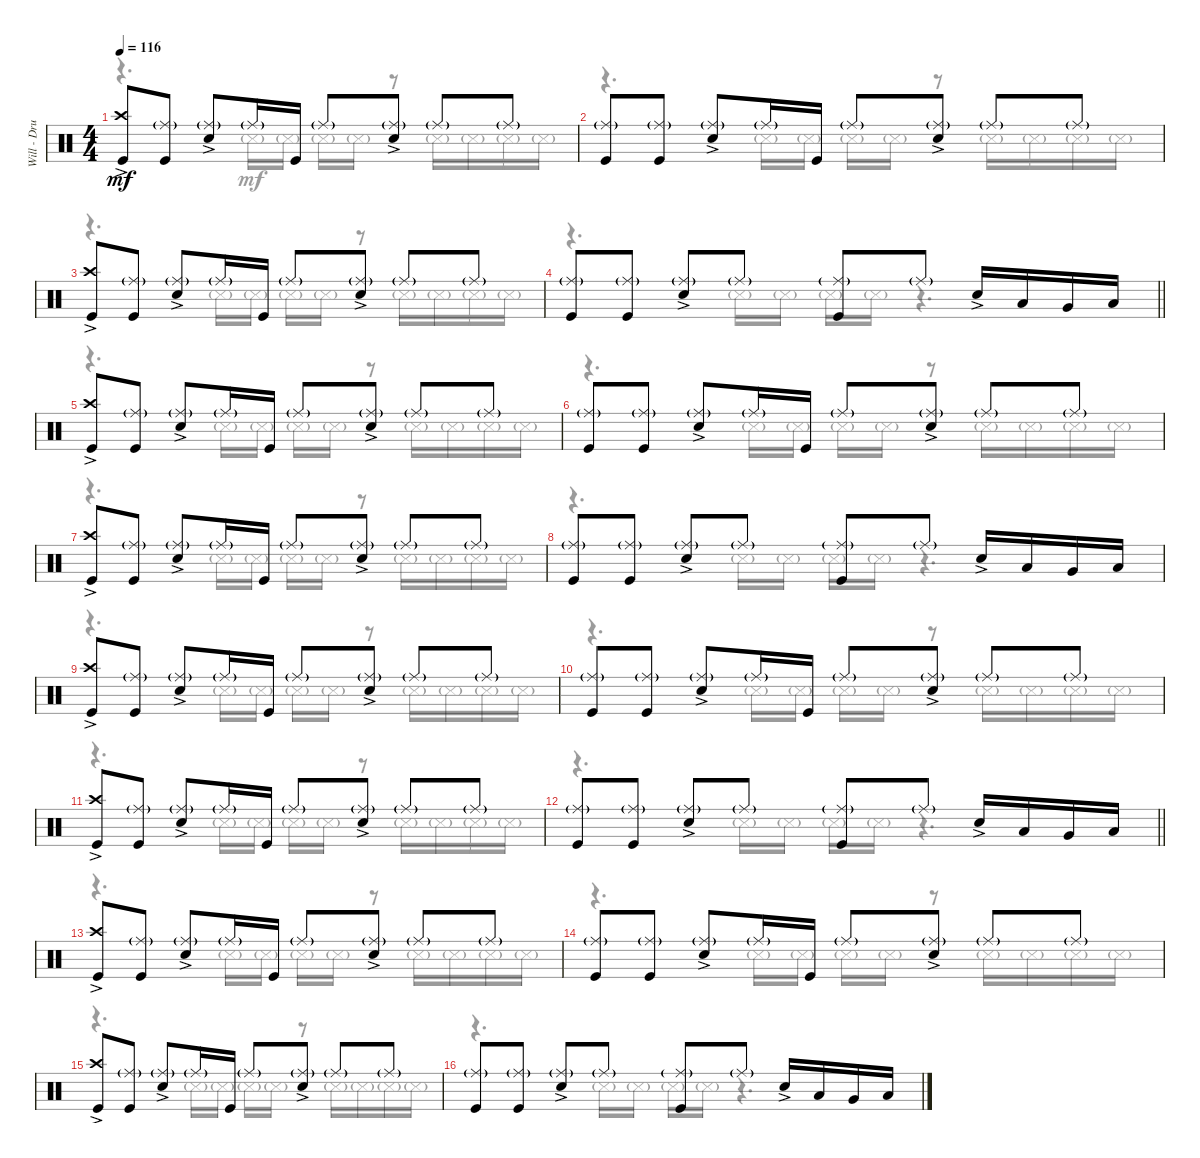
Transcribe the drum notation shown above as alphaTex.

\track ("Will - Drumkit" "Will - Dru") {instrument percussion}
\staff {score}
\articulation defaults
\voice
\ts (4 4)
\tempo 116
\clef neutral
\ks c
("Kick (hit)" "Crash high (hit)"{ac}).8{dy mf} ("Kick (hit)" "Ride (middle)"{g}).8 ("Snare (hit) 2"{ac} "Ride (middle)"{g}).8 "Ride (middle)"{g}.16 "Kick (hit)".16 "Ride (middle)"{g}.8 ("Ride (middle)"{g} "Snare (hit) 2"{ac}).8 "Ride (middle)"{g}.8 "Ride (middle)"{g}.8 |
("Kick (hit)" "Ride (middle)"{g}).8 ("Kick (hit)" "Ride (middle)"{g}).8 ("Snare (hit) 2"{ac} "Ride (middle)"{g}).8 "Ride (middle)"{g}.16 "Kick (hit)".16 "Ride (middle)"{g}.8 ("Ride (middle)"{g} "Snare (hit) 2"{ac}).8 "Ride (middle)"{g}.8 "Ride (middle)"{g}.8 |
("Kick (hit)" "Crash high (hit)"{ac}).8 ("Kick (hit)" "Ride (middle)"{g}).8 ("Snare (hit) 2"{ac} "Ride (middle)"{g}).8 "Ride (middle)"{g}.16 "Kick (hit)".16 "Ride (middle)"{g}.8 ("Ride (middle)"{g} "Snare (hit) 2"{ac}).8 "Ride (middle)"{g}.8 "Ride (middle)"{g}.8 |
\barLineRight lightlight
("Kick (hit)" "Ride (middle)"{g}).8 ("Kick (hit)" "Ride (middle)"{g}).8 ("Snare (hit) 2"{ac} "Ride (middle)"{g}).8 "Ride (middle)"{g}.8 ("Kick (hit)" "Ride (middle)"{g}).8 "Ride (middle)"{g}.8 "Snare (hit) 2"{ac}.16 "Low Tom (hit)".16 "Very Low Tom (hit)".16 "Low Floor Tom (hit)".16 |
("Kick (hit)" "Crash high (hit)"{ac}).8 ("Kick (hit)" "Ride (middle)"{g}).8 ("Snare (hit) 2"{ac} "Ride (middle)"{g}).8 "Ride (middle)"{g}.16 "Kick (hit)".16 "Ride (middle)"{g}.8 ("Ride (middle)"{g} "Snare (hit) 2"{ac}).8 "Ride (middle)"{g}.8 "Ride (middle)"{g}.8 |
("Kick (hit)" "Ride (middle)"{g}).8 ("Kick (hit)" "Ride (middle)"{g}).8 ("Snare (hit) 2"{ac} "Ride (middle)"{g}).8 "Ride (middle)"{g}.16 "Kick (hit)".16 "Ride (middle)"{g}.8 ("Ride (middle)"{g} "Snare (hit) 2"{ac}).8 "Ride (middle)"{g}.8 "Ride (middle)"{g}.8 |
("Kick (hit)" "Crash high (hit)"{ac}).8 ("Kick (hit)" "Ride (middle)"{g}).8 ("Snare (hit) 2"{ac} "Ride (middle)"{g}).8 "Ride (middle)"{g}.16 "Kick (hit)".16 "Ride (middle)"{g}.8 ("Ride (middle)"{g} "Snare (hit) 2"{ac}).8 "Ride (middle)"{g}.8 "Ride (middle)"{g}.8 |
("Kick (hit)" "Ride (middle)"{g}).8 ("Kick (hit)" "Ride (middle)"{g}).8 ("Snare (hit) 2"{ac} "Ride (middle)"{g}).8 "Ride (middle)"{g}.8 ("Kick (hit)" "Ride (middle)"{g}).8 "Ride (middle)"{g}.8 "Snare (hit) 2"{ac}.16 "Low Tom (hit)".16 "Very Low Tom (hit)".16 "Low Floor Tom (hit)".16 |
("Kick (hit)" "Crash high (hit)"{ac}).8 ("Kick (hit)" "Ride (middle)"{g}).8 ("Snare (hit) 2"{ac} "Ride (middle)"{g}).8 "Ride (middle)"{g}.16 "Kick (hit)".16 "Ride (middle)"{g}.8 ("Ride (middle)"{g} "Snare (hit) 2"{ac}).8 "Ride (middle)"{g}.8 "Ride (middle)"{g}.8 |
("Kick (hit)" "Ride (middle)"{g}).8 ("Kick (hit)" "Ride (middle)"{g}).8 ("Snare (hit) 2"{ac} "Ride (middle)"{g}).8 "Ride (middle)"{g}.16 "Kick (hit)".16 "Ride (middle)"{g}.8 ("Ride (middle)"{g} "Snare (hit) 2"{ac}).8 "Ride (middle)"{g}.8 "Ride (middle)"{g}.8 |
("Kick (hit)" "Crash high (hit)"{ac}).8 ("Kick (hit)" "Ride (middle)"{g}).8 ("Snare (hit) 2"{ac} "Ride (middle)"{g}).8 "Ride (middle)"{g}.16 "Kick (hit)".16 "Ride (middle)"{g}.8 ("Ride (middle)"{g} "Snare (hit) 2"{ac}).8 "Ride (middle)"{g}.8 "Ride (middle)"{g}.8 |
\barLineRight lightlight
("Kick (hit)" "Ride (middle)"{g}).8 ("Kick (hit)" "Ride (middle)"{g}).8 ("Snare (hit) 2"{ac} "Ride (middle)"{g}).8 "Ride (middle)"{g}.8 ("Kick (hit)" "Ride (middle)"{g}).8 "Ride (middle)"{g}.8 "Snare (hit) 2"{ac}.16 "Low Tom (hit)".16 "Very Low Tom (hit)".16 "Low Floor Tom (hit)".16 |
("Kick (hit)" "Crash high (hit)"{ac}).8 ("Kick (hit)" "Ride (middle)"{g}).8 ("Snare (hit) 2"{ac} "Ride (middle)"{g}).8 "Ride (middle)"{g}.16 "Kick (hit)".16 "Ride (middle)"{g}.8 ("Ride (middle)"{g} "Snare (hit) 2"{ac}).8 "Ride (middle)"{g}.8 "Ride (middle)"{g}.8 |
("Kick (hit)" "Ride (middle)"{g}).8 ("Kick (hit)" "Ride (middle)"{g}).8 ("Snare (hit) 2"{ac} "Ride (middle)"{g}).8 "Ride (middle)"{g}.16 "Kick (hit)".16 "Ride (middle)"{g}.8 ("Ride (middle)"{g} "Snare (hit) 2"{ac}).8 "Ride (middle)"{g}.8 "Ride (middle)"{g}.8 |
("Kick (hit)" "Crash high (hit)"{ac}).8 ("Kick (hit)" "Ride (middle)"{g}).8 ("Snare (hit) 2"{ac} "Ride (middle)"{g}).8 "Ride (middle)"{g}.16 "Kick (hit)".16 "Ride (middle)"{g}.8 ("Ride (middle)"{g} "Snare (hit) 2"{ac}).8 "Ride (middle)"{g}.8 "Ride (middle)"{g}.8 |
("Kick (hit)" "Ride (middle)"{g}).8 ("Kick (hit)" "Ride (middle)"{g}).8 ("Snare (hit) 2"{ac} "Ride (middle)"{g}).8 "Ride (middle)"{g}.8 ("Kick (hit)" "Ride (middle)"{g}).8 "Ride (middle)"{g}.8 "Snare (hit) 2"{ac}.16 "Low Tom (hit)".16 "Very Low Tom (hit)".16 "Low Floor Tom (hit)".16
\voice
\clef neutral
\ottava regular
\simile none
\ks c
r.4{d dy mf} "Snare (side stick) 3"{g}.16 "Snare (side stick) 3"{g}.16 "Snare (side stick) 3"{g}.16 "Snare (side stick) 3"{g}.16 r.8 "Snare (side stick) 3"{g}.16 "Snare (side stick) 3"{g}.16 "Snare (side stick) 3"{g}.16 "Snare (side stick) 3"{g}.16 |
r.4{d} "Snare (side stick) 3"{g}.16 "Snare (side stick) 3"{g}.16 "Snare (side stick) 3"{g}.16 "Snare (side stick) 3"{g}.16 r.8 "Snare (side stick) 3"{g}.16 "Snare (side stick) 3"{g}.16 "Snare (side stick) 3"{g}.16 "Snare (side stick) 3"{g}.16 |
r.4{d} "Snare (side stick) 3"{g}.16 "Snare (side stick) 3"{g}.16 "Snare (side stick) 3"{g}.16 "Snare (side stick) 3"{g}.16 r.8 "Snare (side stick) 3"{g}.16 "Snare (side stick) 3"{g}.16 "Snare (side stick) 3"{g}.16 "Snare (side stick) 3"{g}.16 |
\barLineRight lightlight
r.4{d} "Snare (side stick) 3"{g}.16 "Snare (side stick) 3"{g}.16 "Snare (side stick) 3"{g}.16 "Snare (side stick) 3"{g}.16 r.4{d} |
r.4{d} "Snare (side stick) 3"{g}.16 "Snare (side stick) 3"{g}.16 "Snare (side stick) 3"{g}.16 "Snare (side stick) 3"{g}.16 r.8 "Snare (side stick) 3"{g}.16 "Snare (side stick) 3"{g}.16 "Snare (side stick) 3"{g}.16 "Snare (side stick) 3"{g}.16 |
r.4{d} "Snare (side stick) 3"{g}.16 "Snare (side stick) 3"{g}.16 "Snare (side stick) 3"{g}.16 "Snare (side stick) 3"{g}.16 r.8 "Snare (side stick) 3"{g}.16 "Snare (side stick) 3"{g}.16 "Snare (side stick) 3"{g}.16 "Snare (side stick) 3"{g}.16 |
r.4{d} "Snare (side stick) 3"{g}.16 "Snare (side stick) 3"{g}.16 "Snare (side stick) 3"{g}.16 "Snare (side stick) 3"{g}.16 r.8 "Snare (side stick) 3"{g}.16 "Snare (side stick) 3"{g}.16 "Snare (side stick) 3"{g}.16 "Snare (side stick) 3"{g}.16 |
r.4{d} "Snare (side stick) 3"{g}.16 "Snare (side stick) 3"{g}.16 "Snare (side stick) 3"{g}.16 "Snare (side stick) 3"{g}.16 r.4{d} |
r.4{d} "Snare (side stick) 3"{g}.16 "Snare (side stick) 3"{g}.16 "Snare (side stick) 3"{g}.16 "Snare (side stick) 3"{g}.16 r.8 "Snare (side stick) 3"{g}.16 "Snare (side stick) 3"{g}.16 "Snare (side stick) 3"{g}.16 "Snare (side stick) 3"{g}.16 |
r.4{d} "Snare (side stick) 3"{g}.16 "Snare (side stick) 3"{g}.16 "Snare (side stick) 3"{g}.16 "Snare (side stick) 3"{g}.16 r.8 "Snare (side stick) 3"{g}.16 "Snare (side stick) 3"{g}.16 "Snare (side stick) 3"{g}.16 "Snare (side stick) 3"{g}.16 |
r.4{d} "Snare (side stick) 3"{g}.16 "Snare (side stick) 3"{g}.16 "Snare (side stick) 3"{g}.16 "Snare (side stick) 3"{g}.16 r.8 "Snare (side stick) 3"{g}.16 "Snare (side stick) 3"{g}.16 "Snare (side stick) 3"{g}.16 "Snare (side stick) 3"{g}.16 |
\barLineRight lightlight
r.4{d} "Snare (side stick) 3"{g}.16 "Snare (side stick) 3"{g}.16 "Snare (side stick) 3"{g}.16 "Snare (side stick) 3"{g}.16 r.4{d} |
r.4{d} "Snare (side stick) 3"{g}.16 "Snare (side stick) 3"{g}.16 "Snare (side stick) 3"{g}.16 "Snare (side stick) 3"{g}.16 r.8 "Snare (side stick) 3"{g}.16 "Snare (side stick) 3"{g}.16 "Snare (side stick) 3"{g}.16 "Snare (side stick) 3"{g}.16 |
r.4{d} "Snare (side stick) 3"{g}.16 "Snare (side stick) 3"{g}.16 "Snare (side stick) 3"{g}.16 "Snare (side stick) 3"{g}.16 r.8 "Snare (side stick) 3"{g}.16 "Snare (side stick) 3"{g}.16 "Snare (side stick) 3"{g}.16 "Snare (side stick) 3"{g}.16 |
r.4{d} "Snare (side stick) 3"{g}.16 "Snare (side stick) 3"{g}.16 "Snare (side stick) 3"{g}.16 "Snare (side stick) 3"{g}.16 r.8 "Snare (side stick) 3"{g}.16 "Snare (side stick) 3"{g}.16 "Snare (side stick) 3"{g}.16 "Snare (side stick) 3"{g}.16 |
r.4{d} "Snare (side stick) 3"{g}.16 "Snare (side stick) 3"{g}.16 "Snare (side stick) 3"{g}.16 "Snare (side stick) 3"{g}.16 r.4{d}
